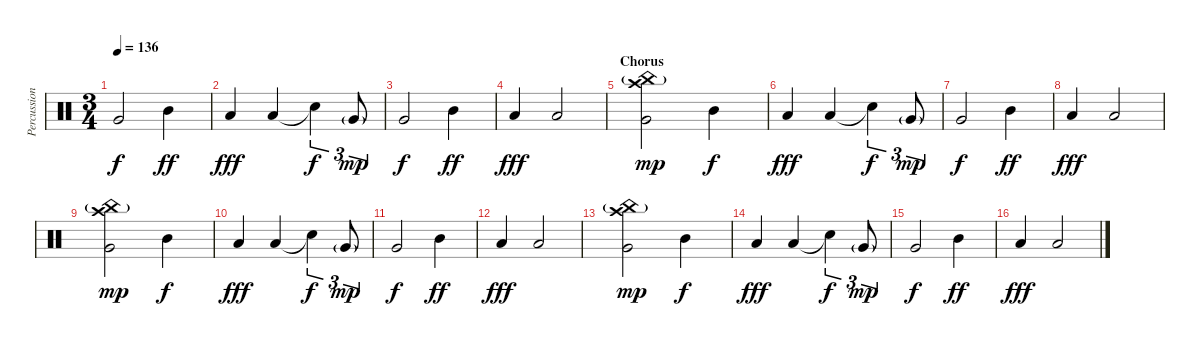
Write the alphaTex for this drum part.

\track ("Percussions / Stephen Van Haestregt" "Percussion") {instrument percussion}
\staff {score}
\articulation defaults
\ts (3 4)
\tempo 136
\clef neutral
\ks c "Very Low Tom (hit)".2{dy f} "Mid Tom (hit)".4{dy ff}
|
"Low Tom (hit)".4{dy fff} "Low Tom (hit)".4 "Snare (hit)"{t}.4{tu (3 2) dy f} "Very Low Tom (hit)"{g}.8{tu (3 2) dy mp} |
"Very Low Tom (hit)".2{dy f} "Mid Tom (hit)".4{dy ff} |
"Low Tom (hit)".4{dy fff} "Low Tom (hit)".2 |
\section ("" "Chorus")
("Crash high (hit)" "China (hit)"{g} "Very Low Tom (hit)").2{dy mp} "Mid Tom (hit)".4{dy f} |
"Low Tom (hit)".4{dy fff} "Low Tom (hit)".4 "Snare (hit)"{t}.4{tu (3 2) dy f} "Very Low Tom (hit)"{g}.8{tu (3 2) dy mp} |
"Very Low Tom (hit)".2{dy f} "Mid Tom (hit)".4{dy ff} |
"Low Tom (hit)".4{dy fff} "Low Tom (hit)".2 |
("Crash high (hit)" "China (hit)"{g} "Very Low Tom (hit)").2{dy mp} "Mid Tom (hit)".4{dy f} |
"Low Tom (hit)".4{dy fff} "Low Tom (hit)".4 "Snare (hit)"{t}.4{tu (3 2) dy f} "Very Low Tom (hit)"{g}.8{tu (3 2) dy mp} |
"Very Low Tom (hit)".2{dy f} "Mid Tom (hit)".4{dy ff} |
"Low Tom (hit)".4{dy fff} "Low Tom (hit)".2 |
("Crash high (hit)" "China (hit)"{g} "Very Low Tom (hit)").2{dy mp} "Mid Tom (hit)".4{dy f} |
"Low Tom (hit)".4{dy fff} "Low Tom (hit)".4 "Snare (hit)"{t}.4{tu (3 2) dy f} "Very Low Tom (hit)"{g}.8{tu (3 2) dy mp} |
"Very Low Tom (hit)".2{dy f} "Mid Tom (hit)".4{dy ff} |
"Low Tom (hit)".4{dy fff} "Low Tom (hit)".2
